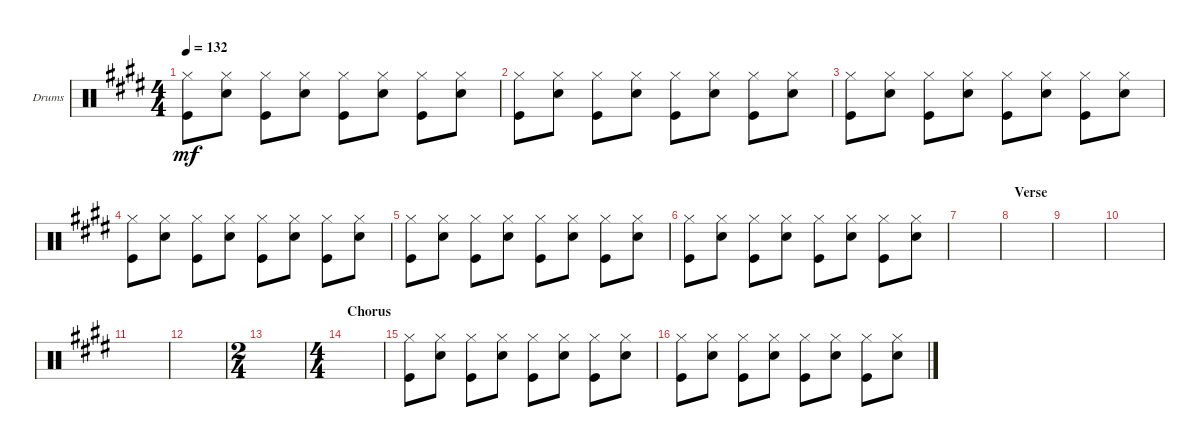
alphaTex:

\defaultSystemsLayout 4
\bracketExtendMode groupsimilarinstruments
\firstSystemTrackNameOrientation horizontal
\otherSystemsTrackNameOrientation horizontal
\track ("Drumkit" "Drums") {instrument percussion}
\staff {score}
\articulation defaults
\ts (4 4)
\tempo 132
\clef neutral
\ks c#minor
("Kick (hit)" "Hi-Hat (closed)").8{dy mf} ("Snare (hit) 2" "Hi-Hat (closed)").8 ("Kick (hit)" "Hi-Hat (closed)").8 ("Snare (hit) 2" "Hi-Hat (closed)").8 ("Kick (hit)" "Hi-Hat (closed)").8 ("Snare (hit) 2" "Hi-Hat (closed)").8 ("Kick (hit)" "Hi-Hat (closed)").8 ("Snare (hit) 2" "Hi-Hat (closed)").8 |
("Kick (hit)" "Hi-Hat (closed)").8 ("Snare (hit) 2" "Hi-Hat (closed)").8 ("Kick (hit)" "Hi-Hat (closed)").8 ("Snare (hit) 2" "Hi-Hat (closed)").8 ("Kick (hit)" "Hi-Hat (closed)").8 ("Snare (hit) 2" "Hi-Hat (closed)").8 ("Kick (hit)" "Hi-Hat (closed)").8 ("Snare (hit) 2" "Hi-Hat (closed)").8 |
("Kick (hit)" "Hi-Hat (closed)").8 ("Snare (hit) 2" "Hi-Hat (closed)").8 ("Kick (hit)" "Hi-Hat (closed)").8 ("Snare (hit) 2" "Hi-Hat (closed)").8 ("Kick (hit)" "Hi-Hat (closed)").8 ("Snare (hit) 2" "Hi-Hat (closed)").8 ("Kick (hit)" "Hi-Hat (closed)").8 ("Snare (hit) 2" "Hi-Hat (closed)").8 |
("Kick (hit)" "Hi-Hat (closed)").8 ("Snare (hit) 2" "Hi-Hat (closed)").8 ("Kick (hit)" "Hi-Hat (closed)").8 ("Snare (hit) 2" "Hi-Hat (closed)").8 ("Kick (hit)" "Hi-Hat (closed)").8 ("Snare (hit) 2" "Hi-Hat (closed)").8 ("Kick (hit)" "Hi-Hat (closed)").8 ("Snare (hit) 2" "Hi-Hat (closed)").8 |
("Kick (hit)" "Hi-Hat (closed)").8 ("Snare (hit) 2" "Hi-Hat (closed)").8 ("Kick (hit)" "Hi-Hat (closed)").8 ("Snare (hit) 2" "Hi-Hat (closed)").8 ("Kick (hit)" "Hi-Hat (closed)").8 ("Snare (hit) 2" "Hi-Hat (closed)").8 ("Kick (hit)" "Hi-Hat (closed)").8 ("Snare (hit) 2" "Hi-Hat (closed)").8 |
("Kick (hit)" "Hi-Hat (closed)").8 ("Snare (hit) 2" "Hi-Hat (closed)").8 ("Kick (hit)" "Hi-Hat (closed)").8 ("Snare (hit) 2" "Hi-Hat (closed)").8 ("Kick (hit)" "Hi-Hat (closed)").8 ("Snare (hit) 2" "Hi-Hat (closed)").8 ("Kick (hit)" "Hi-Hat (closed)").8 ("Snare (hit) 2" "Hi-Hat (closed)").8 |
|
\section ("" "Verse")
|
|
|
|
|
\ts (2 4)
|
\ts (4 4)
\section ("" "Chorus")
|
("Kick (hit)" "Hi-Hat (closed)").8 ("Snare (hit) 2" "Hi-Hat (closed)").8 ("Kick (hit)" "Hi-Hat (closed)").8 ("Snare (hit) 2" "Hi-Hat (closed)").8 ("Kick (hit)" "Hi-Hat (closed)").8 ("Snare (hit) 2" "Hi-Hat (closed)").8 ("Kick (hit)" "Hi-Hat (closed)").8 ("Snare (hit) 2" "Hi-Hat (closed)").8 |
("Kick (hit)" "Hi-Hat (closed)").8 ("Snare (hit) 2" "Hi-Hat (closed)").8 ("Kick (hit)" "Hi-Hat (closed)").8 ("Snare (hit) 2" "Hi-Hat (closed)").8 ("Kick (hit)" "Hi-Hat (closed)").8 ("Snare (hit) 2" "Hi-Hat (closed)").8 ("Kick (hit)" "Hi-Hat (closed)").8 ("Snare (hit) 2" "Hi-Hat (closed)").8
